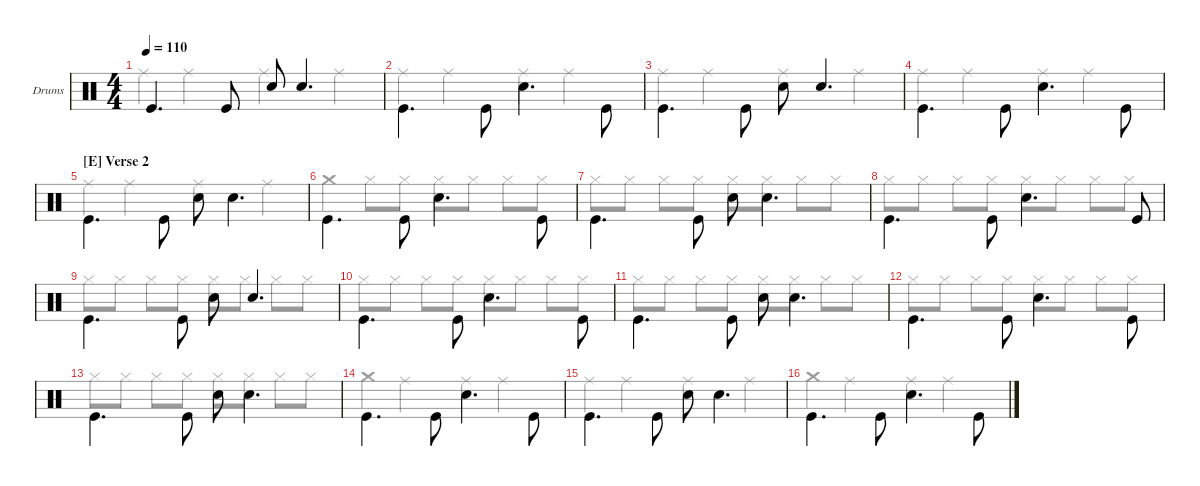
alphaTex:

\hideDynamics
\bracketExtendMode groupsimilarinstruments
\multiBarRest
\firstSystemTrackNameOrientation horizontal
\otherSystemsTrackNameOrientation horizontal
\track ("Drumkit" "Drums") {multiBarRest instrument percussion}
\staff {score}
\articulation defaults
\voice
\ts (4 4)
\tempo 110
\clef neutral
\ks c "Kick (hit)".4{d dy f} "Kick (hit)".8 "Snare (hit) 2".8 "Snare (hit) 2".4{d}
|
"Kick (hit)".4{d beam invert} "Kick (hit)".8{beam invert} "Snare (hit) 2".4{d beam invert} "Kick (hit)".8{beam invert} |
"Kick (hit)".4{d beam invert} "Kick (hit)".8 "Snare (hit) 2".8{beam invert} "Snare (hit) 2".4{d} |
"Kick (hit)".4{d beam invert} "Kick (hit)".8{beam invert} "Snare (hit) 2".4{d} "Kick (hit)".8{beam invert} |
\section ("E" "Verse 2")
"Kick (hit)".4{d} "Kick (hit)".8{beam invert} "Snare (hit) 2".8 "Snare (hit) 2".4{d beam invert} |
"Kick (hit)".4{d} "Kick (hit)".8{beam invert} "Snare (hit) 2".4{d} "Kick (hit)".8{beam invert} |
"Kick (hit)".4{d} "Kick (hit)".8{beam invert} "Snare (hit) 2".8{beam invert} "Snare (hit) 2".4{d beam invert} |
"Kick (hit)".4{d beam invert} "Kick (hit)".8{beam invert} "Snare (hit) 2".4{d beam invert} "Kick (hit)".8 |
"Kick (hit)".4{d beam invert} "Kick (hit)".8 "Snare (hit) 2".8{beam invert} "Snare (hit) 2".4{d} |
"Kick (hit)".4{d beam invert} "Kick (hit)".8{beam invert} "Snare (hit) 2".4{d beam invert} "Kick (hit)".8{beam invert} |
"Kick (hit)".4{d beam invert} "Kick (hit)".8{beam invert} "Snare (hit) 2".8{beam invert} "Snare (hit) 2".4{d beam invert} |
"Kick (hit)".4{d beam invert} "Kick (hit)".8{beam invert} "Snare (hit) 2".4{d beam invert} "Kick (hit)".8{beam invert} |
"Kick (hit)".4{d beam invert} "Kick (hit)".8{beam invert} "Snare (hit) 2".8{beam invert} "Snare (hit) 2".4{d beam invert} |
"Kick (hit)".4{d beam invert} "Kick (hit)".8{beam invert} "Snare (hit) 2".4{d beam invert} "Kick (hit)".8{beam invert} |
"Kick (hit)".4{d beam invert} "Kick (hit)".8{beam invert} "Snare (hit) 2".8{beam invert} "Snare (hit) 2".4{d beam invert} |
"Kick (hit)".4{d beam invert} "Kick (hit)".8{beam invert} "Snare (hit) 2".4{d beam invert} "Kick (hit)".8{beam invert}
\voice
\clef neutral
\ottava regular
\simile none
\ks c
|
|
|
|
|
|
|
|
|
|
|
|
|
|
|
\voice
\clef neutral
\ottava regular
\simile none
\ks c
|
|
|
|
|
|
|
|
|
|
|
|
|
|
|
\voice
\clef neutral
\ottava regular
\simile none
\ks c "Ride (middle)".4{dy f} "Ride (middle)".4 "Ride (middle)".4 "Ride (middle)".4
|
"Ride (middle)".4 "Ride (middle)".4 "Ride (middle)".4 "Ride (middle)".4 |
"Ride (middle)".4 "Ride (middle)".4 "Ride (middle)".4 "Ride (middle)".4 |
"Ride (middle)".4 "Ride (middle)".4 "Ride (middle)".4 "Ride (middle)".4 |
"Ride (middle)".4 "Ride (middle)".4 "Ride (middle)".4 "Ride (middle)".4 |
"Crash medium (hit)".4 "Hi-Hat (closed)".8 "Hi-Hat (closed)".8 "Hi-Hat (closed)".8 "Hi-Hat (closed)".8 "Hi-Hat (closed)".8 "Hi-Hat (closed)".8 |
"Hi-Hat (closed)".8 "Hi-Hat (closed)".8 "Hi-Hat (closed)".8 "Hi-Hat (closed)".8 "Hi-Hat (closed)".8 "Hi-Hat (closed)".8 "Hi-Hat (closed)".8 "Hi-Hat (closed)".8 |
"Hi-Hat (closed)".8 "Hi-Hat (closed)".8 "Hi-Hat (closed)".8 "Hi-Hat (closed)".8 "Hi-Hat (closed)".8 "Hi-Hat (closed)".8 "Hi-Hat (closed)".8 "Hi-Hat (closed)".8 |
"Hi-Hat (closed)".8 "Hi-Hat (closed)".8 "Hi-Hat (closed)".8 "Hi-Hat (closed)".8 "Hi-Hat (closed)".8 "Hi-Hat (closed)".8 "Hi-Hat (closed)".8 "Hi-Hat (closed)".8 |
"Hi-Hat (closed)".8 "Hi-Hat (closed)".8 "Hi-Hat (closed)".8 "Hi-Hat (closed)".8 "Hi-Hat (closed)".8 "Hi-Hat (closed)".8 "Hi-Hat (closed)".8 "Hi-Hat (closed)".8 |
"Hi-Hat (closed)".8 "Hi-Hat (closed)".8 "Hi-Hat (closed)".8 "Hi-Hat (closed)".8 "Hi-Hat (closed)".8 "Hi-Hat (closed)".8 "Hi-Hat (closed)".8 "Hi-Hat (closed)".8 |
"Hi-Hat (closed)".8 "Hi-Hat (closed)".8 "Hi-Hat (closed)".8 "Hi-Hat (closed)".8 "Hi-Hat (closed)".8 "Hi-Hat (closed)".8 "Hi-Hat (closed)".8 "Hi-Hat (closed)".8 |
"Hi-Hat (closed)".8 "Hi-Hat (closed)".8 "Hi-Hat (closed)".8 "Hi-Hat (closed)".8 "Hi-Hat (closed)".8 "Hi-Hat (closed)".8 "Hi-Hat (closed)".8 "Hi-Hat (closed)".8 |
"Crash medium (hit)".4 "Ride (middle)".4 "Ride (middle)".4 "Ride (middle)".4 |
"Ride (middle)".4 "Ride (middle)".4 "Ride (middle)".4 "Ride (middle)".4 |
"Crash medium (hit)".4 "Ride (middle)".4 "Ride (middle)".4 "Ride (middle)".4
